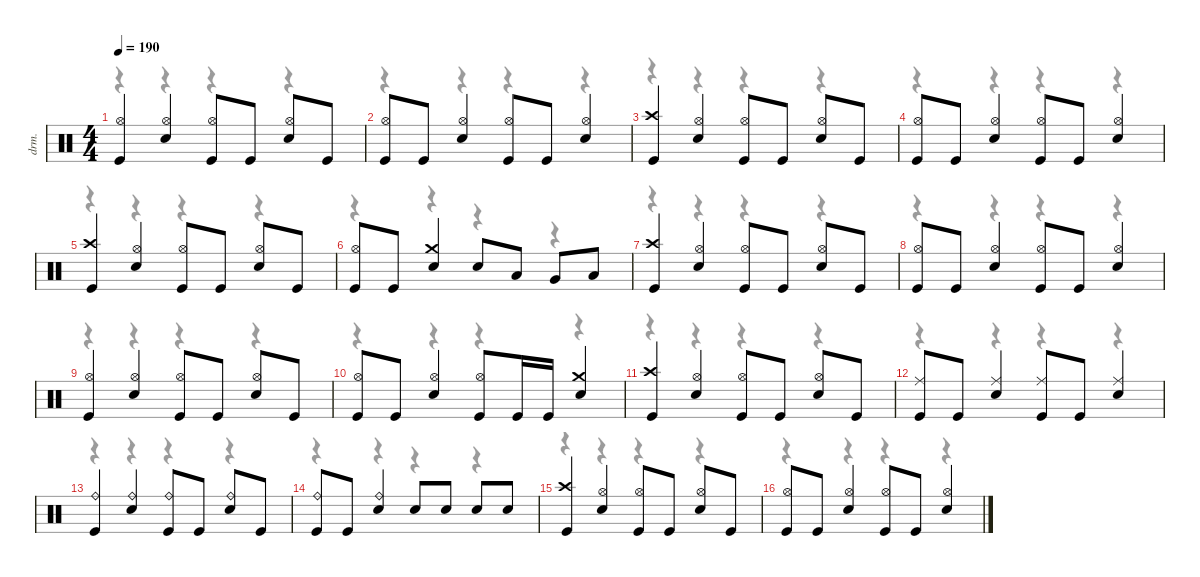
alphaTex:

\defaultSystemsLayout 4
\hideDynamics
\bracketExtendMode nobrackets
\track ("Drums" "drm.") {instrument percussion}
\staff {score}
\articulation defaults
\voice
\ts (4 4)
\tempo 190
\clef neutral
\ks c
("Hi-Hat (open)" "Kick (hit)").4{dy f beam Up} ("Hi-Hat (open)" "Snare (hit) 2").4{beam Up} ("Hi-Hat (open)" "Kick (hit)").8{beam Up} "Kick (hit)".8{beam Up} ("Hi-Hat (open)" "Snare (hit) 2").8{beam Up} "Kick (hit)".8{beam Up} |
("Hi-Hat (open)" "Kick (hit)").8{beam Up} "Kick (hit)".8{beam Up} ("Hi-Hat (open)" "Snare (hit) 2").4{beam Up} ("Hi-Hat (open)" "Kick (hit)").8{beam Up} "Kick (hit)".8{beam Up} ("Hi-Hat (open)" "Snare (hit) 2").4{beam Up} |
("Crash high (hit)" "Kick (hit)").4{beam Up} ("Hi-Hat (open)" "Snare (hit) 2").4{beam Up} ("Hi-Hat (open)" "Kick (hit)").8{beam Up} "Kick (hit)".8{beam Up} ("Hi-Hat (open)" "Snare (hit) 2").8{beam Up} "Kick (hit)".8{beam Up} |
("Hi-Hat (open)" "Kick (hit)").8{beam Up} "Kick (hit)".8{beam Up} ("Hi-Hat (open)" "Snare (hit) 2").4{beam Up} ("Hi-Hat (open)" "Kick (hit)").8{beam Up} "Kick (hit)".8{beam Up} ("Hi-Hat (open)" "Snare (hit) 2").4{beam Up} |
("Crash high (hit)" "Kick (hit)").4{beam Up} ("Hi-Hat (open)" "Snare (hit) 2").4{beam Up} ("Hi-Hat (open)" "Kick (hit)").8{beam Up} "Kick (hit)".8{beam Up} ("Hi-Hat (open)" "Snare (hit) 2").8{beam Up} "Kick (hit)".8{beam Up} |
("Hi-Hat (open)" "Kick (hit)").8{beam Up} "Kick (hit)".8{beam Up} ("Crash medium (hit)" "Snare (hit) 2").4{beam Up} "Snare (hit) 2".8{beam Up} "Low Tom (hit)".8{beam Up} "Very Low Tom (hit)".8{beam Up} "Low Floor Tom (hit)".8{beam Up} |
("Crash high (hit)" "Kick (hit)").4{beam Up} ("Hi-Hat (open)" "Snare (hit) 2").4{beam Up} ("Hi-Hat (open)" "Kick (hit)").8{beam Up} "Kick (hit)".8{beam Up} ("Hi-Hat (open)" "Snare (hit) 2").8{beam Up} "Kick (hit)".8{beam Up} |
("Hi-Hat (open)" "Kick (hit)").8{beam Up} "Kick (hit)".8{beam Up} ("Hi-Hat (open)" "Snare (hit) 2").4{beam Up} ("Hi-Hat (open)" "Kick (hit)").8{beam Up} "Kick (hit)".8{beam Up} ("Hi-Hat (open)" "Snare (hit) 2").4{beam Up} |
("Hi-Hat (open)" "Kick (hit)").4{beam Up} ("Hi-Hat (open)" "Snare (hit) 2").4{beam Up} ("Hi-Hat (open)" "Kick (hit)").8{beam Up} "Kick (hit)".8{beam Up} ("Hi-Hat (open)" "Snare (hit) 2").8{beam Up} "Kick (hit)".8{beam Up} |
("Hi-Hat (open)" "Kick (hit)").8{beam Up} "Kick (hit)".8{beam Up} ("Hi-Hat (open)" "Snare (hit) 2").4{beam Up} ("Hi-Hat (open)" "Kick (hit)").8{beam Up} "Kick (hit)".16{beam Up} "Kick (hit)".16{beam Up} ("Crash medium (hit)" "Snare (hit) 2").4{beam Up} |
("Crash high (hit)" "Kick (hit)").4{beam Up} ("Hi-Hat (open)" "Snare (hit) 2").4{beam Up} ("Hi-Hat (open)" "Kick (hit)").8{beam Up} "Kick (hit)".8{beam Up} ("Hi-Hat (open)" "Snare (hit) 2").8{beam Up} "Kick (hit)".8{beam Up} |
("Ride (middle)" "Kick (hit)").8{beam Up} "Kick (hit)".8{beam Up} ("Ride (middle)" "Snare (hit) 2").4{beam Up} ("Ride (middle)" "Kick (hit)").8{beam Up} "Kick (hit)".8{beam Up} ("Ride (middle)" "Snare (hit) 2").4{beam Up} |
("Ride (bell)" "Kick (hit)").4{beam Up} ("Ride (bell)" "Snare (hit) 2").4{beam Up} ("Ride (bell)" "Kick (hit)").8{beam Up} "Kick (hit)".8{beam Up} ("Ride (bell)" "Snare (hit) 2").8{beam Up} "Kick (hit)".8{beam Up} |
("Ride (bell)" "Kick (hit)").8{beam Up} "Kick (hit)".8{beam Up} ("Ride (bell)" "Snare (hit) 2").4{beam Up} "Snare (hit) 2".8{beam Up} "Snare (hit) 2".8{beam Up} "Snare (hit) 2".8{beam Up} "Snare (hit) 2".8{beam Up} |
("Crash high (hit)" "Kick (hit)").4{beam Up} ("Hi-Hat (open)" "Snare (hit) 2").4{beam Up} ("Hi-Hat (open)" "Kick (hit)").8{beam Up} "Kick (hit)".8{beam Up} ("Hi-Hat (open)" "Snare (hit) 2").8{beam Up} "Kick (hit)".8{beam Up} |
("Hi-Hat (open)" "Kick (hit)").8{beam Up} "Kick (hit)".8{beam Up} ("Hi-Hat (open)" "Snare (hit) 2").4{beam Up} ("Hi-Hat (open)" "Kick (hit)").8{beam Up} "Kick (hit)".8{beam Up} ("Hi-Hat (open)" "Snare (hit) 2").4{beam Up}
\voice
\clef neutral
\ottava regular
\simile none
\ks c
r.4{dy mf beam Down} r.4{beam Down} r.4{beam Down} r.4{beam Down} |
r.4{beam Down} r.4{beam Down} r.4{beam Down} r.4{beam Down} |
r.4{beam Down} r.4{beam Down} r.4{beam Down} r.4{beam Down} |
r.4{beam Down} r.4{beam Down} r.4{beam Down} r.4{beam Down} |
r.4{beam Down} r.4{beam Down} r.4{beam Down} r.4{beam Down} |
r.4{beam Down} r.4{beam Down} r.4{beam Down} r.4{beam Down} |
r.4{beam Down} r.4{beam Down} r.4{beam Down} r.4{beam Down} |
r.4{beam Down} r.4{beam Down} r.4{beam Down} r.4{beam Down} |
r.4{beam Down} r.4{beam Down} r.4{beam Down} r.4{beam Down} |
r.4{beam Down} r.4{beam Down} r.4{beam Down} r.4{beam Down} |
r.4{beam Down} r.4{beam Down} r.4{beam Down} r.4{beam Down} |
r.4{beam Down} r.4{beam Down} r.4{beam Down} r.4{beam Down} |
r.4{beam Down} r.4{beam Down} r.4{beam Down} r.4{beam Down} |
r.4{beam Down} r.4{beam Down} r.4{beam Down} r.4{beam Down} |
r.4{beam Down} r.4{beam Down} r.4{beam Down} r.4{beam Down} |
r.4{beam Down} r.4{beam Down} r.4{beam Down} r.4{beam Down}
